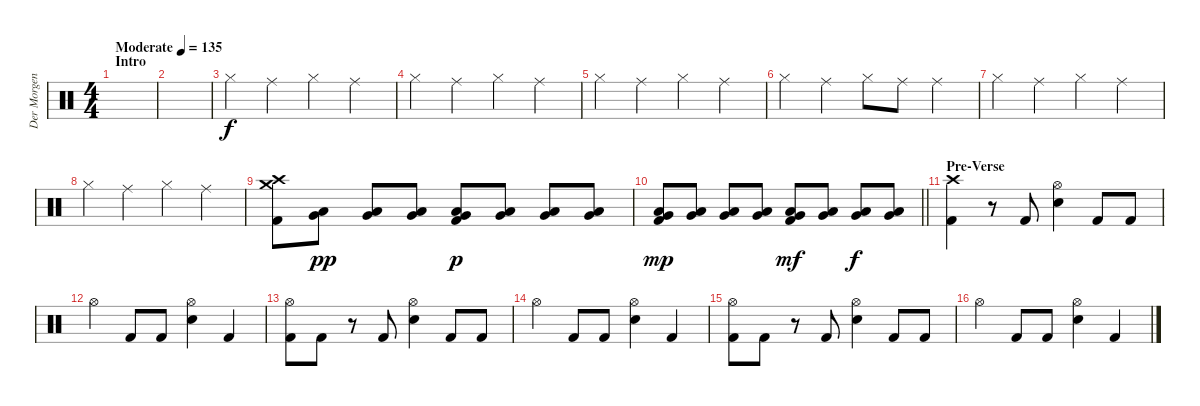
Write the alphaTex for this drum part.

\track ("Der Morgenstern" "Der Morgen") {instrument percussion}
\staff {score}
\articulation defaults
\ts (4 4)
\section ("" "Intro")
\tempo (135 "Moderate")
\clef neutral
\ks c
|
|
"Hi-Hat (closed)".4 "Ride (middle)".4 "Hi-Hat (closed)".4 "Ride (middle)".4 |
"Hi-Hat (closed)".4 "Ride (middle)".4 "Hi-Hat (closed)".4 "Ride (middle)".4 |
"Hi-Hat (closed)".4 "Ride (middle)".4 "Hi-Hat (closed)".4 "Ride (middle)".4 |
"Hi-Hat (closed)".4 "Ride (middle)".4 "Hi-Hat (closed)".8 "Ride (middle)".8 "Ride (middle)".4 |
"Hi-Hat (closed)".4 "Ride (middle)".4 "Hi-Hat (closed)".4 "Ride (middle)".4 |
"Hi-Hat (closed)".4 "Ride (middle)".4 "Hi-Hat (closed)".4 "Ride (middle)".4 |
("Crash high (hit)" "Crash medium (hit)" "Kick (hit) 2").8 ("Very Low Tom (hit)" "Low Floor Tom (hit)").8{dy pp} ("Very Low Tom (hit)" "Low Floor Tom (hit)").8 ("Very Low Tom (hit)" "Low Floor Tom (hit)").8 ("Very Low Tom (hit)" "Low Floor Tom (hit)" "Kick (hit) 2").8{dy p} ("Very Low Tom (hit)" "Low Floor Tom (hit)").8 ("Very Low Tom (hit)" "Low Floor Tom (hit)").8 ("Very Low Tom (hit)" "Low Floor Tom (hit)").8 |
\barLineRight lightlight
("Very Low Tom (hit)" "Low Floor Tom (hit)" "Kick (hit) 2").8{dy mp} ("Very Low Tom (hit)" "Low Floor Tom (hit)").8 ("Very Low Tom (hit)" "Low Floor Tom (hit)").8 ("Very Low Tom (hit)" "Low Floor Tom (hit)").8 ("Very Low Tom (hit)" "Low Floor Tom (hit)" "Kick (hit) 2").8{dy mf} ("Very Low Tom (hit)" "Low Floor Tom (hit)").8 ("Very Low Tom (hit)" "Low Floor Tom (hit)").8{dy f} ("Very Low Tom (hit)" "Low Floor Tom (hit)").8 |
\section ("" "Pre-Verse")
("Crash high (hit)" "Kick (hit) 2").4 r.8 "Kick (hit) 2".8 ("Hi-Hat (open)" "Electric Snare (hit)").4 "Kick (hit) 2".8 "Kick (hit) 2".8 |
"Hi-Hat (open)".4 "Kick (hit) 2".8 "Kick (hit) 2".8 ("Hi-Hat (open)" "Electric Snare (hit)").4 "Kick (hit) 2".4 |
("Hi-Hat (open)" "Kick (hit) 2").8 "Kick (hit) 2".8 r.8 "Kick (hit) 2".8 ("Hi-Hat (open)" "Electric Snare (hit)").4 "Kick (hit) 2".8 "Kick (hit) 2".8 |
"Hi-Hat (open)".4 "Kick (hit) 2".8 "Kick (hit) 2".8 ("Hi-Hat (open)" "Electric Snare (hit)").4 "Kick (hit) 2".4 |
("Hi-Hat (open)" "Kick (hit) 2").8 "Kick (hit) 2".8 r.8 "Kick (hit) 2".8 ("Hi-Hat (open)" "Electric Snare (hit)").4 "Kick (hit) 2".8 "Kick (hit) 2".8 |
"Hi-Hat (open)".4 "Kick (hit) 2".8 "Kick (hit) 2".8 ("Hi-Hat (open)" "Electric Snare (hit)").4 "Kick (hit) 2".4
